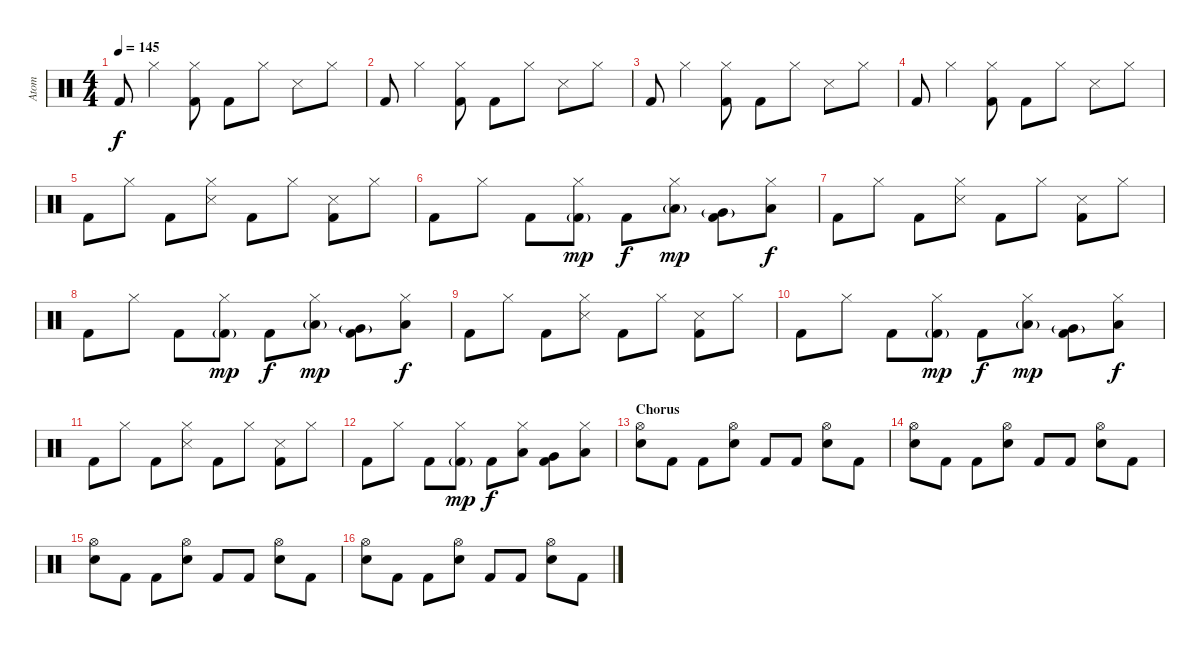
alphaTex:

\track ("Atom" "Atom") {instrument percussion}
\staff {score}
\articulation defaults
\ts (4 4)
\tempo 145
\clef neutral
\ks c "Kick (hit) 2".8{dy f} "Hi-Hat (closed)".4
("Hi-Hat (closed)" "Kick (hit) 2").8 "Kick (hit) 2".8 "Hi-Hat (closed)".8 "Snare (side stick) 3".8 "Hi-Hat (closed)".8 |
"Kick (hit) 2".8 "Hi-Hat (closed)".4 ("Hi-Hat (closed)" "Kick (hit) 2").8 "Kick (hit) 2".8 "Hi-Hat (closed)".8 "Snare (side stick) 3".8 "Hi-Hat (closed)".8 |
"Kick (hit) 2".8 "Hi-Hat (closed)".4 ("Hi-Hat (closed)" "Kick (hit) 2").8 "Kick (hit) 2".8 "Hi-Hat (closed)".8 "Snare (side stick) 3".8 "Hi-Hat (closed)".8 |
"Kick (hit) 2".8 "Hi-Hat (closed)".4 ("Hi-Hat (closed)" "Kick (hit) 2").8 "Kick (hit) 2".8 "Hi-Hat (closed)".8 "Snare (side stick) 3".8 "Hi-Hat (closed)".8 |
"Kick (hit) 2".8 "Hi-Hat (closed)".8 "Kick (hit) 2".8 ("Hi-Hat (closed)" "Snare (side stick) 3").8 "Kick (hit) 2".8 "Hi-Hat (closed)".8 ("Snare (side stick) 3" "Kick (hit) 2").8 "Hi-Hat (closed)".8 |
"Kick (hit) 2".8 "Hi-Hat (closed)".8 "Kick (hit) 2".8 ("Hi-Hat (closed)" "Kick (hit) 2"{g}).8{dy mp} "Kick (hit) 2".8{dy f} ("Hi-Hat (closed)" "Low Tom (hit)"{g}).8{dy mp} ("Very Low Tom (hit)"{g} "Kick (hit) 2").8 ("Hi-Hat (closed)" "Low Floor Tom (hit)").8{dy f} |
"Kick (hit) 2".8 "Hi-Hat (closed)".8 "Kick (hit) 2".8 ("Hi-Hat (closed)" "Snare (side stick) 3").8 "Kick (hit) 2".8 "Hi-Hat (closed)".8 ("Snare (side stick) 3" "Kick (hit) 2").8 "Hi-Hat (closed)".8 |
"Kick (hit) 2".8 "Hi-Hat (closed)".8 "Kick (hit) 2".8 ("Hi-Hat (closed)" "Kick (hit) 2"{g}).8{dy mp} "Kick (hit) 2".8{dy f} ("Hi-Hat (closed)" "Low Tom (hit)"{g}).8{dy mp} ("Very Low Tom (hit)"{g} "Kick (hit) 2").8 ("Hi-Hat (closed)" "Low Floor Tom (hit)").8{dy f} |
"Kick (hit) 2".8 "Hi-Hat (closed)".8 "Kick (hit) 2".8 ("Hi-Hat (closed)" "Snare (side stick) 3").8 "Kick (hit) 2".8 "Hi-Hat (closed)".8 ("Snare (side stick) 3" "Kick (hit) 2").8 "Hi-Hat (closed)".8 |
"Kick (hit) 2".8 "Hi-Hat (closed)".8 "Kick (hit) 2".8 ("Hi-Hat (closed)" "Kick (hit) 2"{g}).8{dy mp} "Kick (hit) 2".8{dy f} ("Hi-Hat (closed)" "Low Tom (hit)"{g}).8{dy mp} ("Very Low Tom (hit)"{g} "Kick (hit) 2").8 ("Hi-Hat (closed)" "Low Floor Tom (hit)").8{dy f} |
"Kick (hit) 2".8 "Hi-Hat (closed)".8 "Kick (hit) 2".8 ("Hi-Hat (closed)" "Snare (side stick) 3").8 "Kick (hit) 2".8 "Hi-Hat (closed)".8 ("Snare (side stick) 3" "Kick (hit) 2").8 "Hi-Hat (closed)".8 |
"Kick (hit) 2".8 "Hi-Hat (closed)".8 "Kick (hit) 2".8 ("Hi-Hat (closed)" "Kick (hit) 2"{g}).8{dy mp} "Kick (hit) 2".8{dy f} ("Hi-Hat (closed)" "Low Tom (hit)").8 ("Very Low Tom (hit)" "Kick (hit) 2").8 ("Hi-Hat (closed)" "Low Floor Tom (hit)").8 |
\section ("" "Chorus")
("Electric Snare (hit)" "Hi-Hat (open)").8{volume 16} "Kick (hit) 2".8 "Kick (hit) 2".8 ("Electric Snare (hit)" "Hi-Hat (open)").8 "Kick (hit) 2".8 "Kick (hit) 2".8 ("Electric Snare (hit)" "Hi-Hat (open)").8 "Kick (hit) 2".8 |
("Electric Snare (hit)" "Hi-Hat (open)").8{volume 16} "Kick (hit) 2".8 "Kick (hit) 2".8 ("Electric Snare (hit)" "Hi-Hat (open)").8 "Kick (hit) 2".8 "Kick (hit) 2".8 ("Electric Snare (hit)" "Hi-Hat (open)").8 "Kick (hit) 2".8 |
("Electric Snare (hit)" "Hi-Hat (open)").8{volume 16} "Kick (hit) 2".8 "Kick (hit) 2".8 ("Electric Snare (hit)" "Hi-Hat (open)").8 "Kick (hit) 2".8 "Kick (hit) 2".8 ("Electric Snare (hit)" "Hi-Hat (open)").8 "Kick (hit) 2".8 |
("Electric Snare (hit)" "Hi-Hat (open)").8{volume 16} "Kick (hit) 2".8 "Kick (hit) 2".8 ("Electric Snare (hit)" "Hi-Hat (open)").8 "Kick (hit) 2".8 "Kick (hit) 2".8 ("Electric Snare (hit)" "Hi-Hat (open)").8 "Kick (hit) 2".8
